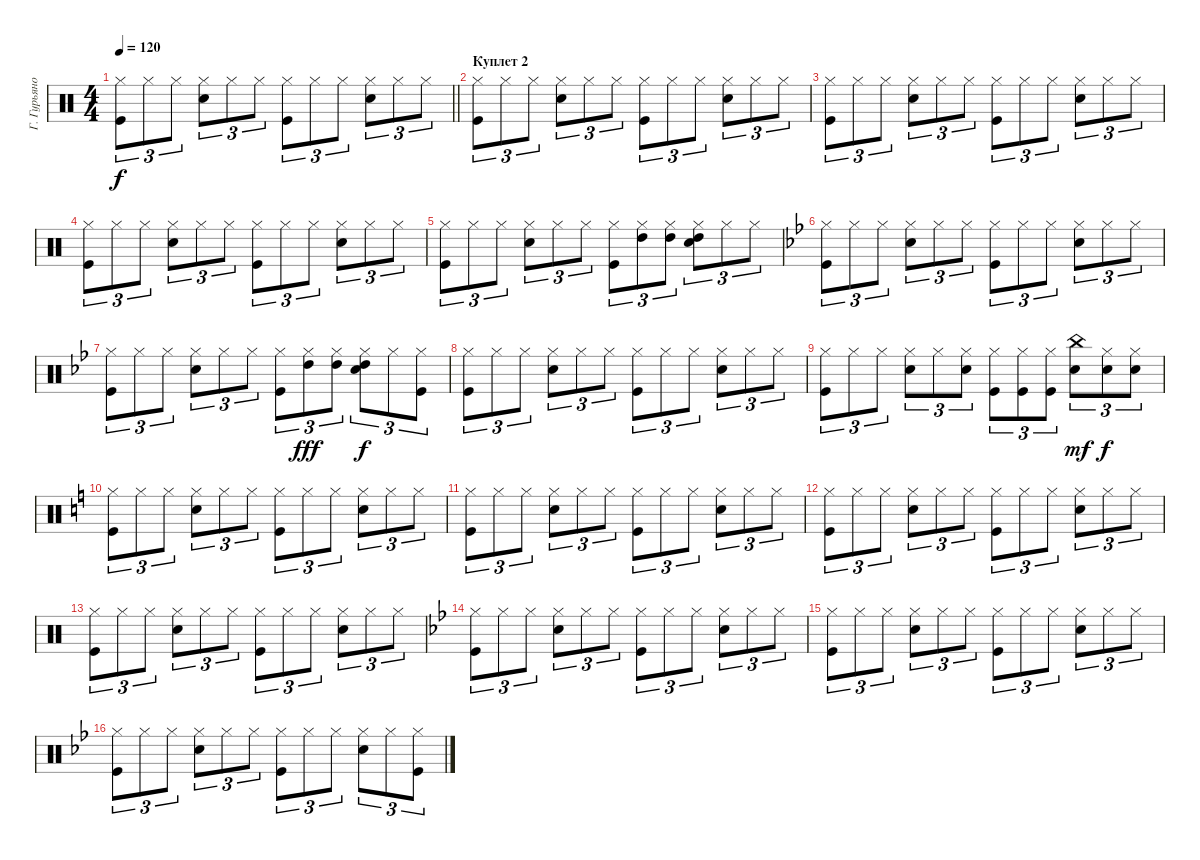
\track ("Г. Гурьянов" "Г. Гурьяно") {instrument percussion}
\staff
\articulation defaults
\ts (4 4)
\tempo 120
\clef neutral
\barLineRight lightlight
\ks c
("Hi-Hat (closed)" "Kick (hit)").8{tu (3 2) dy f} "Hi-Hat (closed)".8{tu (3 2)} "Hi-Hat (closed)".8{tu (3 2)} ("Hi-Hat (closed)" "Snare (hit) 2").8{tu (3 2)} "Hi-Hat (closed)".8{tu (3 2)} "Hi-Hat (closed)".8{tu (3 2)} ("Hi-Hat (closed)" "Kick (hit)").8{tu (3 2)} "Hi-Hat (closed)".8{tu (3 2)} "Hi-Hat (closed)".8{tu (3 2)} ("Hi-Hat (closed)" "Snare (hit) 2").8{tu (3 2)} "Hi-Hat (closed)".8{tu (3 2)} "Hi-Hat (closed)".8{tu (3 2)} |
\section ("" "Куплет 2")
("Hi-Hat (closed)" "Kick (hit)").8{tu (3 2)} "Hi-Hat (closed)".8{tu (3 2)} "Hi-Hat (closed)".8{tu (3 2)} ("Hi-Hat (closed)" "Snare (hit) 2").8{tu (3 2)} "Hi-Hat (closed)".8{tu (3 2)} "Hi-Hat (closed)".8{tu (3 2)} ("Hi-Hat (closed)" "Kick (hit)").8{tu (3 2)} "Hi-Hat (closed)".8{tu (3 2)} "Hi-Hat (closed)".8{tu (3 2)} ("Hi-Hat (closed)" "Snare (hit) 2").8{tu (3 2)} "Hi-Hat (closed)".8{tu (3 2)} "Hi-Hat (closed)".8{tu (3 2)} |
("Hi-Hat (closed)" "Kick (hit)").8{tu (3 2)} "Hi-Hat (closed)".8{tu (3 2)} "Hi-Hat (closed)".8{tu (3 2)} ("Hi-Hat (closed)" "Snare (hit) 2").8{tu (3 2)} "Hi-Hat (closed)".8{tu (3 2)} "Hi-Hat (closed)".8{tu (3 2)} ("Hi-Hat (closed)" "Kick (hit)").8{tu (3 2)} "Hi-Hat (closed)".8{tu (3 2)} "Hi-Hat (closed)".8{tu (3 2)} ("Hi-Hat (closed)" "Snare (hit) 2").8{tu (3 2)} "Hi-Hat (closed)".8{tu (3 2)} "Hi-Hat (closed)".8{tu (3 2)} |
("Hi-Hat (closed)" "Kick (hit)").8{tu (3 2)} "Hi-Hat (closed)".8{tu (3 2)} "Hi-Hat (closed)".8{tu (3 2)} ("Hi-Hat (closed)" "Snare (hit) 2").8{tu (3 2)} "Hi-Hat (closed)".8{tu (3 2)} "Hi-Hat (closed)".8{tu (3 2)} ("Hi-Hat (closed)" "Kick (hit)").8{tu (3 2)} "Hi-Hat (closed)".8{tu (3 2)} "Hi-Hat (closed)".8{tu (3 2)} ("Hi-Hat (closed)" "Snare (hit) 2").8{tu (3 2)} "Hi-Hat (closed)".8{tu (3 2)} "Hi-Hat (closed)".8{tu (3 2)} |
("Hi-Hat (closed)" "Kick (hit)").8{tu (3 2)} "Hi-Hat (closed)".8{tu (3 2)} "Hi-Hat (closed)".8{tu (3 2)} ("Hi-Hat (closed)" "Snare (hit) 2").8{tu (3 2)} "Hi-Hat (closed)".8{tu (3 2)} "Hi-Hat (closed)".8{tu (3 2)} ("Hi-Hat (closed)" "Kick (hit)").8{tu (3 2)} ("Hi-Hat (closed)" "High Tom (hit)").8{tu (3 2)} ("Hi-Hat (closed)" "High Tom (hit)").8{tu (3 2)} ("Hi-Hat (closed)" "Snare (hit) 2" "High Tom (hit)").8{tu (3 2)} "Hi-Hat (closed)".8{tu (3 2)} "Hi-Hat (closed)".8{tu (3 2)} |
\ks gminor
("Hi-Hat (closed)" "Kick (hit)").8{tu (3 2)} "Hi-Hat (closed)".8{tu (3 2)} "Hi-Hat (closed)".8{tu (3 2)} ("Hi-Hat (closed)" "Snare (hit) 2").8{tu (3 2)} "Hi-Hat (closed)".8{tu (3 2)} "Hi-Hat (closed)".8{tu (3 2)} ("Hi-Hat (closed)" "Kick (hit)").8{tu (3 2)} "Hi-Hat (closed)".8{tu (3 2)} "Hi-Hat (closed)".8{tu (3 2)} ("Hi-Hat (closed)" "Snare (hit) 2").8{tu (3 2)} "Hi-Hat (closed)".8{tu (3 2)} "Hi-Hat (closed)".8{tu (3 2)} |
("Hi-Hat (closed)" "Kick (hit)").8{tu (3 2)} "Hi-Hat (closed)".8{tu (3 2)} "Hi-Hat (closed)".8{tu (3 2)} ("Hi-Hat (closed)" "Snare (hit) 2").8{tu (3 2)} "Hi-Hat (closed)".8{tu (3 2)} "Hi-Hat (closed)".8{tu (3 2)} ("Hi-Hat (closed)" "Kick (hit)").8{tu (3 2)} ("Hi-Hat (closed)" "High Tom (hit)").8{tu (3 2) dy fff} ("Hi-Hat (closed)" "High Tom (hit)").8{tu (3 2)} ("Hi-Hat (closed)" "Snare (hit) 2" "High Tom (hit)").8{tu (3 2) dy f} "Hi-Hat (closed)".8{tu (3 2)} ("Hi-Hat (closed)" "Kick (hit)").8{tu (3 2)} |
("Hi-Hat (closed)" "Kick (hit)").8{tu (3 2)} "Hi-Hat (closed)".8{tu (3 2)} "Hi-Hat (closed)".8{tu (3 2)} ("Hi-Hat (closed)" "Snare (hit) 2").8{tu (3 2)} "Hi-Hat (closed)".8{tu (3 2)} "Hi-Hat (closed)".8{tu (3 2)} ("Hi-Hat (closed)" "Kick (hit)").8{tu (3 2)} "Hi-Hat (closed)".8{tu (3 2)} "Hi-Hat (closed)".8{tu (3 2)} ("Hi-Hat (closed)" "Snare (hit) 2").8{tu (3 2)} "Hi-Hat (closed)".8{tu (3 2)} "Hi-Hat (closed)".8{tu (3 2)} |
("Hi-Hat (closed)" "Kick (hit)").8{tu (3 2)} "Hi-Hat (closed)".8{tu (3 2)} "Hi-Hat (closed)".8{tu (3 2)} ("Hi-Hat (closed)" "Snare (hit) 2").8{tu (3 2)} "Hi-Hat (closed)".8{tu (3 2)} ("Hi-Hat (closed)" "Snare (hit) 2").8{tu (3 2)} ("Hi-Hat (closed)" "Kick (hit)").8{tu (3 2)} ("Hi-Hat (closed)" "Kick (hit)").8{tu (3 2)} ("Hi-Hat (closed)" "Kick (hit)").8{tu (3 2)} ("Snare (hit) 2" "China (hit)").8{tu (3 2) dy mf} ("Hi-Hat (closed)" "Snare (hit) 2").8{tu (3 2) dy f} ("Hi-Hat (closed)" "Snare (hit) 2").8{tu (3 2)} |
\ks c
("Hi-Hat (closed)" "Kick (hit)").8{tu (3 2)} "Hi-Hat (closed)".8{tu (3 2)} "Hi-Hat (closed)".8{tu (3 2)} ("Hi-Hat (closed)" "Snare (hit) 2").8{tu (3 2)} "Hi-Hat (closed)".8{tu (3 2)} "Hi-Hat (closed)".8{tu (3 2)} ("Hi-Hat (closed)" "Kick (hit)").8{tu (3 2)} "Hi-Hat (closed)".8{tu (3 2)} "Hi-Hat (closed)".8{tu (3 2)} ("Hi-Hat (closed)" "Snare (hit) 2").8{tu (3 2)} "Hi-Hat (closed)".8{tu (3 2)} "Hi-Hat (closed)".8{tu (3 2)} |
("Hi-Hat (closed)" "Kick (hit)").8{tu (3 2)} "Hi-Hat (closed)".8{tu (3 2)} "Hi-Hat (closed)".8{tu (3 2)} ("Hi-Hat (closed)" "Snare (hit) 2").8{tu (3 2)} "Hi-Hat (closed)".8{tu (3 2)} "Hi-Hat (closed)".8{tu (3 2)} ("Hi-Hat (closed)" "Kick (hit)").8{tu (3 2)} "Hi-Hat (closed)".8{tu (3 2)} "Hi-Hat (closed)".8{tu (3 2)} ("Hi-Hat (closed)" "Snare (hit) 2").8{tu (3 2)} "Hi-Hat (closed)".8{tu (3 2)} "Hi-Hat (closed)".8{tu (3 2)} |
("Hi-Hat (closed)" "Kick (hit)").8{tu (3 2)} "Hi-Hat (closed)".8{tu (3 2)} "Hi-Hat (closed)".8{tu (3 2)} ("Hi-Hat (closed)" "Snare (hit) 2").8{tu (3 2)} "Hi-Hat (closed)".8{tu (3 2)} "Hi-Hat (closed)".8{tu (3 2)} ("Hi-Hat (closed)" "Kick (hit)").8{tu (3 2)} "Hi-Hat (closed)".8{tu (3 2)} "Hi-Hat (closed)".8{tu (3 2)} ("Hi-Hat (closed)" "Snare (hit) 2").8{tu (3 2)} "Hi-Hat (closed)".8{tu (3 2)} "Hi-Hat (closed)".8{tu (3 2)} |
("Hi-Hat (closed)" "Kick (hit)").8{tu (3 2)} "Hi-Hat (closed)".8{tu (3 2)} "Hi-Hat (closed)".8{tu (3 2)} ("Hi-Hat (closed)" "Snare (hit) 2").8{tu (3 2)} "Hi-Hat (closed)".8{tu (3 2)} "Hi-Hat (closed)".8{tu (3 2)} ("Hi-Hat (closed)" "Kick (hit)").8{tu (3 2)} "Hi-Hat (closed)".8{tu (3 2)} "Hi-Hat (closed)".8{tu (3 2)} ("Hi-Hat (closed)" "Snare (hit) 2").8{tu (3 2)} "Hi-Hat (closed)".8{tu (3 2)} "Hi-Hat (closed)".8{tu (3 2)} |
\ks gminor
("Hi-Hat (closed)" "Kick (hit)").8{tu (3 2)} "Hi-Hat (closed)".8{tu (3 2)} "Hi-Hat (closed)".8{tu (3 2)} ("Hi-Hat (closed)" "Snare (hit) 2").8{tu (3 2)} "Hi-Hat (closed)".8{tu (3 2)} "Hi-Hat (closed)".8{tu (3 2)} ("Hi-Hat (closed)" "Kick (hit)").8{tu (3 2)} "Hi-Hat (closed)".8{tu (3 2)} "Hi-Hat (closed)".8{tu (3 2)} ("Hi-Hat (closed)" "Snare (hit) 2").8{tu (3 2)} "Hi-Hat (closed)".8{tu (3 2)} "Hi-Hat (closed)".8{tu (3 2)} |
("Hi-Hat (closed)" "Kick (hit)").8{tu (3 2)} "Hi-Hat (closed)".8{tu (3 2)} "Hi-Hat (closed)".8{tu (3 2)} ("Hi-Hat (closed)" "Snare (hit) 2").8{tu (3 2)} "Hi-Hat (closed)".8{tu (3 2)} "Hi-Hat (closed)".8{tu (3 2)} ("Hi-Hat (closed)" "Kick (hit)").8{tu (3 2)} "Hi-Hat (closed)".8{tu (3 2)} "Hi-Hat (closed)".8{tu (3 2)} ("Hi-Hat (closed)" "Snare (hit) 2").8{tu (3 2)} "Hi-Hat (closed)".8{tu (3 2)} "Hi-Hat (closed)".8{tu (3 2)} |
("Hi-Hat (closed)" "Kick (hit)").8{tu (3 2)} "Hi-Hat (closed)".8{tu (3 2)} "Hi-Hat (closed)".8{tu (3 2)} ("Hi-Hat (closed)" "Snare (hit) 2").8{tu (3 2)} "Hi-Hat (closed)".8{tu (3 2)} "Hi-Hat (closed)".8{tu (3 2)} ("Hi-Hat (closed)" "Kick (hit)").8{tu (3 2)} "Hi-Hat (closed)".8{tu (3 2)} "Hi-Hat (closed)".8{tu (3 2)} ("Hi-Hat (closed)" "Snare (hit) 2").8{tu (3 2)} "Hi-Hat (closed)".8{tu (3 2)} ("Hi-Hat (closed)" "Kick (hit)").8{tu (3 2)}
